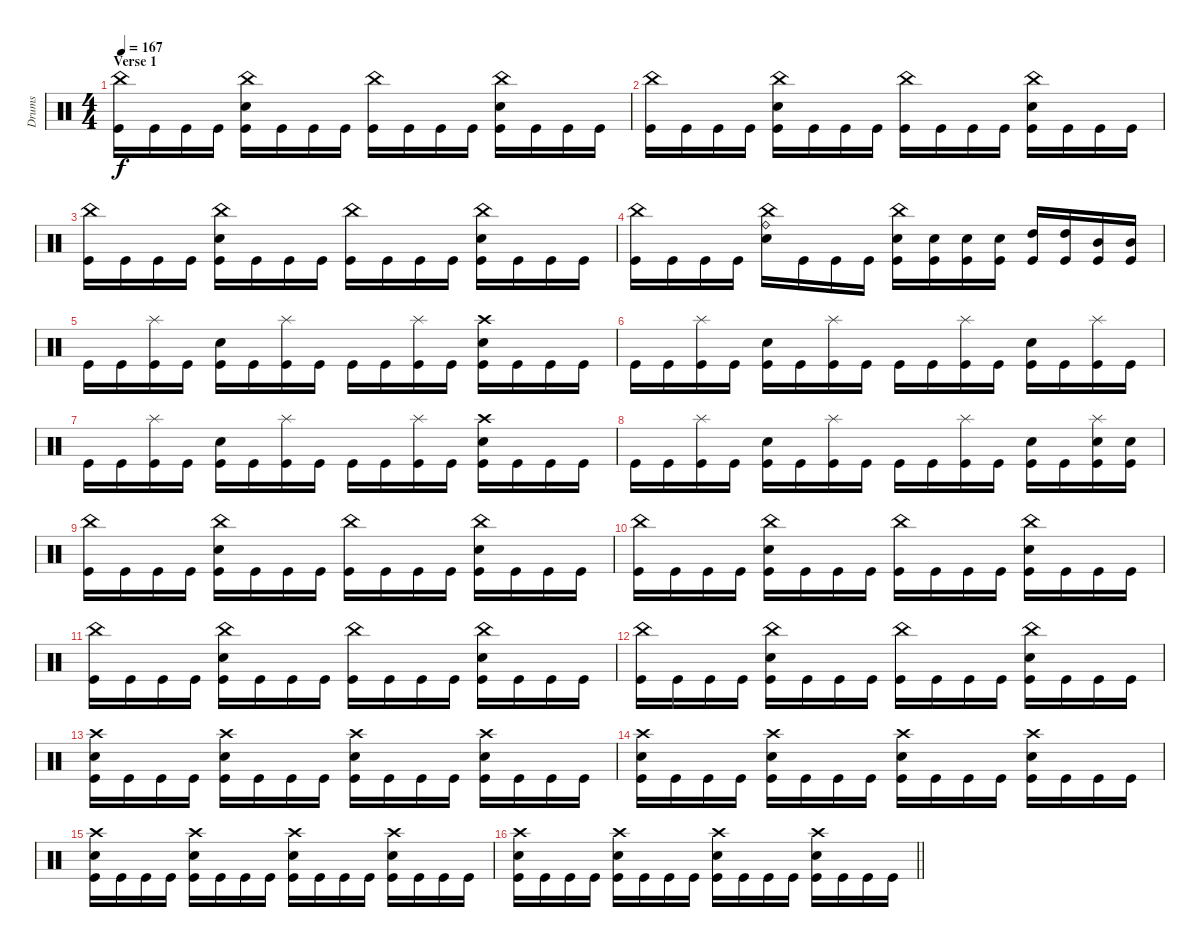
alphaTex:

\track ("Drums" "Drums") {instrument percussion}
\staff {score}
\articulation defaults
\ts (4 4)
\section ("" "Verse 1")
\tempo 167
\clef neutral
\ks c
("China (hit)" "Kick (hit)").16{dy f} "Kick (hit)".16 "Kick (hit)".16 "Kick (hit)".16 ("China (hit)" "Snare (hit) 2" "Kick (hit)").16 "Kick (hit)".16 "Kick (hit)".16 "Kick (hit)".16 ("China (hit)" "Kick (hit)").16 "Kick (hit)".16 "Kick (hit)".16 "Kick (hit)".16 ("China (hit)" "Snare (hit) 2" "Kick (hit)").16 "Kick (hit)".16 "Kick (hit)".16 "Kick (hit)".16 |
("China (hit)" "Kick (hit)").16 "Kick (hit)".16 "Kick (hit)".16 "Kick (hit)".16 ("China (hit)" "Snare (hit) 2" "Kick (hit)").16 "Kick (hit)".16 "Kick (hit)".16 "Kick (hit)".16 ("China (hit)" "Kick (hit)").16 "Kick (hit)".16 "Kick (hit)".16 "Kick (hit)".16 ("China (hit)" "Snare (hit) 2" "Kick (hit)").16 "Kick (hit)".16 "Kick (hit)".16 "Kick (hit)".16 |
("China (hit)" "Kick (hit)").16 "Kick (hit)".16 "Kick (hit)".16 "Kick (hit)".16 ("China (hit)" "Snare (hit) 2" "Kick (hit)").16 "Kick (hit)".16 "Kick (hit)".16 "Kick (hit)".16 ("China (hit)" "Kick (hit)").16 "Kick (hit)".16 "Kick (hit)".16 "Kick (hit)".16 ("China (hit)" "Snare (hit) 2" "Kick (hit)").16 "Kick (hit)".16 "Kick (hit)".16 "Kick (hit)".16 |
("China (hit)" "Kick (hit)").16 "Kick (hit)".16 "Kick (hit)".16 "Kick (hit)".16 ("China (hit)" "Snare (hit) 2" "Ride (bell)").16 "Kick (hit)".16 "Kick (hit)".16 "Kick (hit)".16 ("China (hit)" "Snare (hit) 2" "Kick (hit)").16 ("Snare (hit) 2" "Kick (hit)").16 ("Snare (hit) 2" "Kick (hit)").16 ("Snare (hit) 2" "Kick (hit)").16 ("High Tom (hit)" "Kick (hit)").16 ("High Tom (hit)" "Kick (hit)").16 ("Mid Tom (hit)" "Kick (hit)").16 ("Mid Tom (hit)" "Kick (hit)").16 |
"Kick (hit)".16 "Kick (hit)".16 ("Splash (hit)" "Kick (hit)").16 "Kick (hit)".16 ("Snare (hit) 2" "Kick (hit)").16 "Kick (hit)".16 ("Splash (hit)" "Kick (hit)").16 "Kick (hit)".16 "Kick (hit)".16 "Kick (hit)".16 ("Splash (hit)" "Kick (hit)").16 "Kick (hit)".16 ("Crash high (hit)" "Snare (hit) 2" "Kick (hit)").16 "Kick (hit)".16 "Kick (hit)".16 "Kick (hit)".16 |
"Kick (hit)".16 "Kick (hit)".16 ("Splash (hit)" "Kick (hit)").16 "Kick (hit)".16 ("Snare (hit) 2" "Kick (hit)").16 "Kick (hit)".16 ("Splash (hit)" "Kick (hit)").16 "Kick (hit)".16 "Kick (hit)".16 "Kick (hit)".16 ("Splash (hit)" "Kick (hit)").16 "Kick (hit)".16 ("Snare (hit) 2" "Kick (hit)").16 "Kick (hit)".16 ("Splash (hit)" "Kick (hit)").16 "Kick (hit)".16 |
"Kick (hit)".16 "Kick (hit)".16 ("Splash (hit)" "Kick (hit)").16 "Kick (hit)".16 ("Snare (hit) 2" "Kick (hit)").16 "Kick (hit)".16 ("Splash (hit)" "Kick (hit)").16 "Kick (hit)".16 "Kick (hit)".16 "Kick (hit)".16 ("Splash (hit)" "Kick (hit)").16 "Kick (hit)".16 ("Crash high (hit)" "Snare (hit) 2" "Kick (hit)").16 "Kick (hit)".16 "Kick (hit)".16 "Kick (hit)".16 |
"Kick (hit)".16 "Kick (hit)".16 ("Splash (hit)" "Kick (hit)").16 "Kick (hit)".16 ("Snare (hit) 2" "Kick (hit)").16 "Kick (hit)".16 ("Splash (hit)" "Kick (hit)").16 "Kick (hit)".16 "Kick (hit)".16 "Kick (hit)".16 ("Splash (hit)" "Kick (hit)").16 "Kick (hit)".16 ("Snare (hit) 2" "Kick (hit)").16 "Kick (hit)".16 ("Splash (hit)" "Snare (hit) 2" "Kick (hit)").16 ("Snare (hit) 2" "Kick (hit)").16 |
("China (hit)" "Kick (hit)").16 "Kick (hit)".16 "Kick (hit)".16 "Kick (hit)".16 ("China (hit)" "Snare (hit) 2" "Kick (hit)").16 "Kick (hit)".16 "Kick (hit)".16 "Kick (hit)".16 ("China (hit)" "Kick (hit)").16 "Kick (hit)".16 "Kick (hit)".16 "Kick (hit)".16 ("China (hit)" "Snare (hit) 2" "Kick (hit)").16 "Kick (hit)".16 "Kick (hit)".16 "Kick (hit)".16 |
("China (hit)" "Kick (hit)").16 "Kick (hit)".16 "Kick (hit)".16 "Kick (hit)".16 ("China (hit)" "Snare (hit) 2" "Kick (hit)").16 "Kick (hit)".16 "Kick (hit)".16 "Kick (hit)".16 ("China (hit)" "Kick (hit)").16 "Kick (hit)".16 "Kick (hit)".16 "Kick (hit)".16 ("China (hit)" "Snare (hit) 2" "Kick (hit)").16 "Kick (hit)".16 "Kick (hit)".16 "Kick (hit)".16 |
("China (hit)" "Kick (hit)").16 "Kick (hit)".16 "Kick (hit)".16 "Kick (hit)".16 ("China (hit)" "Snare (hit) 2" "Kick (hit)").16 "Kick (hit)".16 "Kick (hit)".16 "Kick (hit)".16 ("China (hit)" "Kick (hit)").16 "Kick (hit)".16 "Kick (hit)".16 "Kick (hit)".16 ("China (hit)" "Snare (hit) 2" "Kick (hit)").16 "Kick (hit)".16 "Kick (hit)".16 "Kick (hit)".16 |
("China (hit)" "Kick (hit)").16 "Kick (hit)".16 "Kick (hit)".16 "Kick (hit)".16 ("China (hit)" "Snare (hit) 2" "Kick (hit)").16 "Kick (hit)".16 "Kick (hit)".16 "Kick (hit)".16 ("China (hit)" "Kick (hit)").16 "Kick (hit)".16 "Kick (hit)".16 "Kick (hit)".16 ("China (hit)" "Snare (hit) 2" "Kick (hit)").16 "Kick (hit)".16 "Kick (hit)".16 "Kick (hit)".16 |
("Crash high (hit)" "Snare (hit) 2" "Kick (hit)").16 "Kick (hit)".16 "Kick (hit)".16 "Kick (hit)".16 ("Crash high (hit)" "Snare (hit) 2" "Kick (hit)").16 "Kick (hit)".16 "Kick (hit)".16 "Kick (hit)".16 ("Crash high (hit)" "Snare (hit) 2" "Kick (hit)").16 "Kick (hit)".16 "Kick (hit)".16 "Kick (hit)".16 ("Crash high (hit)" "Snare (hit) 2" "Kick (hit)").16 "Kick (hit)".16 "Kick (hit)".16 "Kick (hit)".16 |
("Crash high (hit)" "Snare (hit) 2" "Kick (hit)").16 "Kick (hit)".16 "Kick (hit)".16 "Kick (hit)".16 ("Crash high (hit)" "Snare (hit) 2" "Kick (hit)").16 "Kick (hit)".16 "Kick (hit)".16 "Kick (hit)".16 ("Crash high (hit)" "Snare (hit) 2" "Kick (hit)").16 "Kick (hit)".16 "Kick (hit)".16 "Kick (hit)".16 ("Crash high (hit)" "Snare (hit) 2" "Kick (hit)").16 "Kick (hit)".16 "Kick (hit)".16 "Kick (hit)".16 |
("Crash high (hit)" "Snare (hit) 2" "Kick (hit)").16 "Kick (hit)".16 "Kick (hit)".16 "Kick (hit)".16 ("Crash high (hit)" "Snare (hit) 2" "Kick (hit)").16 "Kick (hit)".16 "Kick (hit)".16 "Kick (hit)".16 ("Crash high (hit)" "Snare (hit) 2" "Kick (hit)").16 "Kick (hit)".16 "Kick (hit)".16 "Kick (hit)".16 ("Crash high (hit)" "Snare (hit) 2" "Kick (hit)").16 "Kick (hit)".16 "Kick (hit)".16 "Kick (hit)".16 |
\barLineRight lightlight
("Crash high (hit)" "Snare (hit) 2" "Kick (hit)").16 "Kick (hit)".16 "Kick (hit)".16 "Kick (hit)".16 ("Crash high (hit)" "Snare (hit) 2" "Kick (hit)").16 "Kick (hit)".16 "Kick (hit)".16 "Kick (hit)".16 ("Crash high (hit)" "Snare (hit) 2" "Kick (hit)").16 "Kick (hit)".16 "Kick (hit)".16 "Kick (hit)".16 ("Crash high (hit)" "Snare (hit) 2" "Kick (hit)").16 "Kick (hit)".16 "Kick (hit)".16 "Kick (hit)".16
